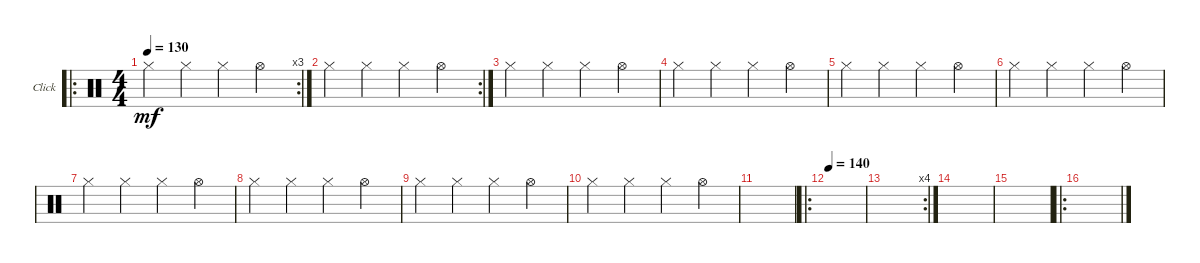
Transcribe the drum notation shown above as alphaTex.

\bracketExtendMode groupsimilarinstruments
\firstSystemTrackNameOrientation horizontal
\otherSystemsTrackNameOrientation horizontal
\track ("Click" "Click") {instrument percussion}
\staff {score}
\articulation defaults
\ro
\rc 3
\ts (4 4)
\tempo 130
\clef neutral
\ks c "Hi-Hat (closed)".4{dy mf} "Hi-Hat (closed)".4 "Hi-Hat (closed)".4 "Hi-Hat (open)".4
|
\rc 2 "Hi-Hat (closed)".4 "Hi-Hat (closed)".4 "Hi-Hat (closed)".4 "Hi-Hat (open)".4
|
"Hi-Hat (closed)".4 "Hi-Hat (closed)".4 "Hi-Hat (closed)".4 "Hi-Hat (open)".4 |
"Hi-Hat (closed)".4 "Hi-Hat (closed)".4 "Hi-Hat (closed)".4 "Hi-Hat (open)".4 |
"Hi-Hat (closed)".4 "Hi-Hat (closed)".4 "Hi-Hat (closed)".4 "Hi-Hat (open)".4 |
"Hi-Hat (closed)".4 "Hi-Hat (closed)".4 "Hi-Hat (closed)".4 "Hi-Hat (open)".4 |
"Hi-Hat (closed)".4 "Hi-Hat (closed)".4 "Hi-Hat (closed)".4 "Hi-Hat (open)".4 |
"Hi-Hat (closed)".4 "Hi-Hat (closed)".4 "Hi-Hat (closed)".4 "Hi-Hat (open)".4 |
"Hi-Hat (closed)".4 "Hi-Hat (closed)".4 "Hi-Hat (closed)".4 "Hi-Hat (open)".4 |
"Hi-Hat (closed)".4 "Hi-Hat (closed)".4 "Hi-Hat (closed)".4 "Hi-Hat (open)".4 |
|
\ro
\tempo 140
|
\rc 4
|
|
|
\ro
